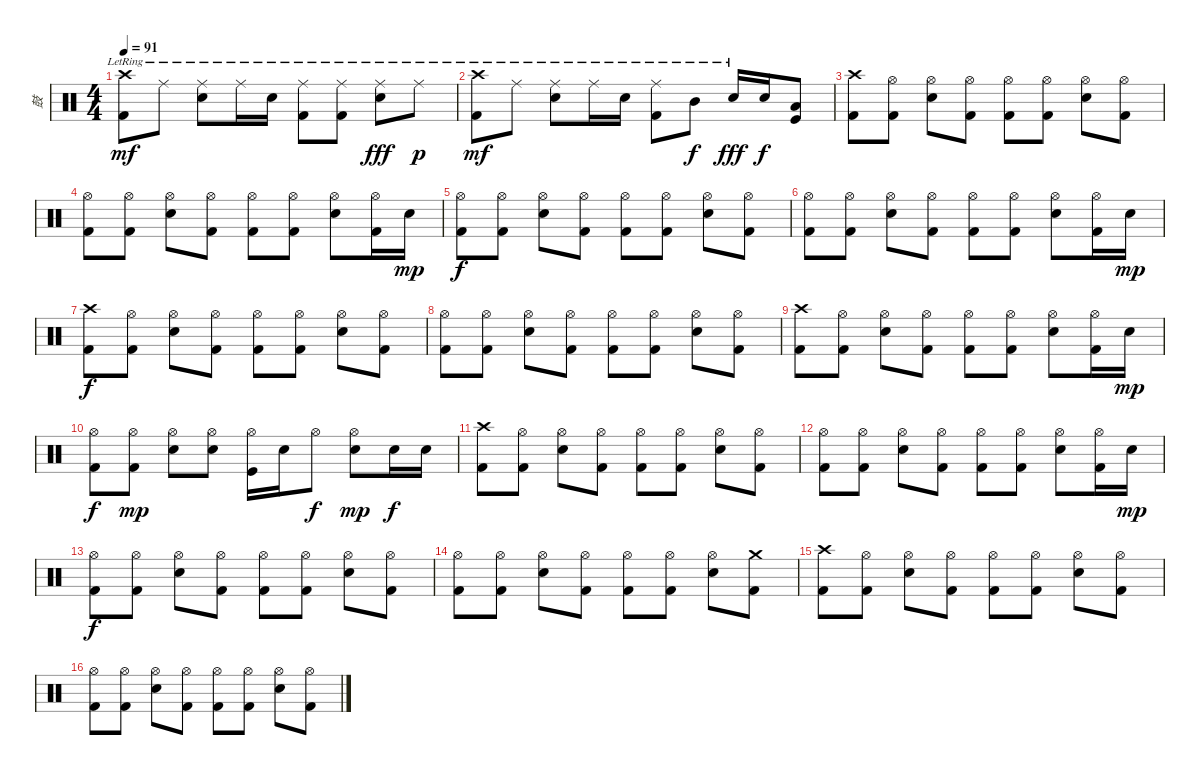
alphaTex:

\track ("鼓" "鼓") {instrument percussion}
\staff {score}
\articulation defaults
\ts (4 4)
\tempo 91
\clef neutral
\ks c
("Crash high (hit)"{lr} "Kick (hit) 2"{lr}).8{dy mf} "Ride (middle)"{lr}.8 ("Ride (middle)"{lr} "Electric Snare (hit)"{lr}).8 "Ride (middle)"{lr}.16 "Electric Snare (hit)"{lr}.16 ("Ride (middle)"{lr} "Kick (hit) 2").8 ("Ride (middle)"{lr} "Kick (hit) 2"{lr}).8 ("Ride (middle)"{lr} "Electric Snare (hit)"{lr}).8{dy fff} "Ride (middle)"{lr}.8{dy p} |
("Crash high (hit)"{lr} "Kick (hit) 2"{lr}).8{dy mf} "Ride (middle)"{lr}.8 ("Ride (middle)"{lr} "Electric Snare (hit)"{lr}).8 "Ride (middle)"{lr}.16 "Electric Snare (hit)"{lr}.16 ("Ride (middle)"{lr} "Kick (hit) 2").8 "Mid Tom (hit)"{lr}.8{dy f} "Electric Snare (hit)"{lr}.16{dy fff} "Electric Snare (hit)".16{dy f} ("Low Tom (hit)" "Kick (hit)").8 |
("Crash high (hit)" "Kick (hit) 2").8 ("Hi-Hat (open)" "Kick (hit) 2").8 ("Hi-Hat (open)" "Electric Snare (hit)").8 ("Hi-Hat (open)" "Kick (hit) 2").8 ("Hi-Hat (open)" "Kick (hit) 2").8 ("Hi-Hat (open)" "Kick (hit) 2").8 ("Hi-Hat (open)" "Electric Snare (hit)").8 ("Hi-Hat (open)" "Kick (hit) 2").8 |
("Hi-Hat (open)" "Kick (hit) 2").8 ("Hi-Hat (open)" "Kick (hit) 2").8 ("Hi-Hat (open)" "Electric Snare (hit)").8 ("Hi-Hat (open)" "Kick (hit) 2").8 ("Hi-Hat (open)" "Kick (hit) 2").8 ("Hi-Hat (open)" "Kick (hit) 2").8 ("Hi-Hat (open)" "Electric Snare (hit)").8 ("Hi-Hat (open)" "Kick (hit) 2").16 "Electric Snare (hit)".16{dy mp} |
("Hi-Hat (open)" "Kick (hit) 2").8{dy f} ("Hi-Hat (open)" "Kick (hit) 2").8 ("Hi-Hat (open)" "Electric Snare (hit)").8 ("Hi-Hat (open)" "Kick (hit) 2").8 ("Hi-Hat (open)" "Kick (hit) 2").8 ("Hi-Hat (open)" "Kick (hit) 2").8 ("Hi-Hat (open)" "Electric Snare (hit)").8 ("Hi-Hat (open)" "Kick (hit) 2").8 |
("Hi-Hat (open)" "Kick (hit) 2").8 ("Hi-Hat (open)" "Kick (hit) 2").8 ("Hi-Hat (open)" "Electric Snare (hit)").8 ("Hi-Hat (open)" "Kick (hit) 2").8 ("Hi-Hat (open)" "Kick (hit) 2").8 ("Hi-Hat (open)" "Kick (hit) 2").8 ("Hi-Hat (open)" "Electric Snare (hit)").8 ("Hi-Hat (open)" "Kick (hit) 2").16 "Electric Snare (hit)".16{dy mp} |
("Crash high (hit)" "Kick (hit) 2").8{dy f} ("Hi-Hat (open)" "Kick (hit) 2").8 ("Hi-Hat (open)" "Electric Snare (hit)").8 ("Hi-Hat (open)" "Kick (hit) 2").8 ("Hi-Hat (open)" "Kick (hit) 2").8 ("Hi-Hat (open)" "Kick (hit) 2").8 ("Hi-Hat (open)" "Electric Snare (hit)").8 ("Hi-Hat (open)" "Kick (hit) 2").8 |
("Hi-Hat (open)" "Kick (hit) 2").8 ("Hi-Hat (open)" "Kick (hit) 2").8 ("Hi-Hat (open)" "Electric Snare (hit)").8 ("Hi-Hat (open)" "Kick (hit) 2").8 ("Hi-Hat (open)" "Kick (hit) 2").8 ("Hi-Hat (open)" "Kick (hit) 2").8 ("Hi-Hat (open)" "Electric Snare (hit)").8 ("Hi-Hat (open)" "Kick (hit) 2").8 |
("Crash high (hit)" "Kick (hit) 2").8 ("Hi-Hat (open)" "Kick (hit) 2").8 ("Hi-Hat (open)" "Electric Snare (hit)").8 ("Hi-Hat (open)" "Kick (hit) 2").8 ("Hi-Hat (open)" "Kick (hit) 2").8 ("Hi-Hat (open)" "Kick (hit) 2").8 ("Hi-Hat (open)" "Electric Snare (hit)").8 ("Hi-Hat (open)" "Kick (hit) 2").16 "Electric Snare (hit)".16{dy mp} |
("Hi-Hat (open)" "Kick (hit) 2").8{dy f} ("Hi-Hat (open)" "Kick (hit) 2").8{dy mp} ("Hi-Hat (open)" "Electric Snare (hit)").8 ("Hi-Hat (open)" "Electric Snare (hit)").8 ("Hi-Hat (open)" "Kick (hit)").16 "Electric Snare (hit)".16 "Hi-Hat (open)".8{dy f} ("Hi-Hat (open)" "Electric Snare (hit)").8{dy mp} "Electric Snare (hit)".16{dy f} "Electric Snare (hit)".16 |
("Crash high (hit)" "Kick (hit) 2").8 ("Hi-Hat (open)" "Kick (hit) 2").8 ("Hi-Hat (open)" "Electric Snare (hit)").8 ("Hi-Hat (open)" "Kick (hit) 2").8 ("Hi-Hat (open)" "Kick (hit) 2").8 ("Hi-Hat (open)" "Kick (hit) 2").8 ("Hi-Hat (open)" "Electric Snare (hit)").8 ("Hi-Hat (open)" "Kick (hit) 2").8 |
("Hi-Hat (open)" "Kick (hit) 2").8 ("Hi-Hat (open)" "Kick (hit) 2").8 ("Hi-Hat (open)" "Electric Snare (hit)").8 ("Hi-Hat (open)" "Kick (hit) 2").8 ("Hi-Hat (open)" "Kick (hit) 2").8 ("Hi-Hat (open)" "Kick (hit) 2").8 ("Hi-Hat (open)" "Electric Snare (hit)").8 ("Hi-Hat (open)" "Kick (hit) 2").16 "Electric Snare (hit)".16{dy mp} |
("Hi-Hat (open)" "Kick (hit) 2").8{dy f} ("Hi-Hat (open)" "Kick (hit) 2").8 ("Hi-Hat (open)" "Electric Snare (hit)").8 ("Hi-Hat (open)" "Kick (hit) 2").8 ("Hi-Hat (open)" "Kick (hit) 2").8 ("Hi-Hat (open)" "Kick (hit) 2").8 ("Hi-Hat (open)" "Electric Snare (hit)").8 ("Hi-Hat (open)" "Kick (hit) 2").8 |
("Hi-Hat (open)" "Kick (hit) 2").8 ("Hi-Hat (open)" "Kick (hit) 2").8 ("Hi-Hat (open)" "Electric Snare (hit)").8 ("Hi-Hat (open)" "Kick (hit) 2").8 ("Hi-Hat (open)" "Kick (hit) 2").8 ("Hi-Hat (open)" "Kick (hit) 2").8 ("Hi-Hat (open)" "Electric Snare (hit)").8 ("Crash medium (hit)" "Kick (hit) 2").8 |
("Crash high (hit)" "Kick (hit) 2").8 ("Hi-Hat (open)" "Kick (hit) 2").8 ("Hi-Hat (open)" "Electric Snare (hit)").8 ("Hi-Hat (open)" "Kick (hit) 2").8 ("Hi-Hat (open)" "Kick (hit) 2").8 ("Hi-Hat (open)" "Kick (hit) 2").8 ("Hi-Hat (open)" "Electric Snare (hit)").8 ("Hi-Hat (open)" "Kick (hit) 2").8 |
("Hi-Hat (open)" "Kick (hit) 2").8 ("Hi-Hat (open)" "Kick (hit) 2").8 ("Hi-Hat (open)" "Electric Snare (hit)").8 ("Hi-Hat (open)" "Kick (hit) 2").8 ("Hi-Hat (open)" "Kick (hit) 2").8 ("Hi-Hat (open)" "Kick (hit) 2").8 ("Hi-Hat (open)" "Electric Snare (hit)").8 ("Hi-Hat (open)" "Kick (hit) 2").8
